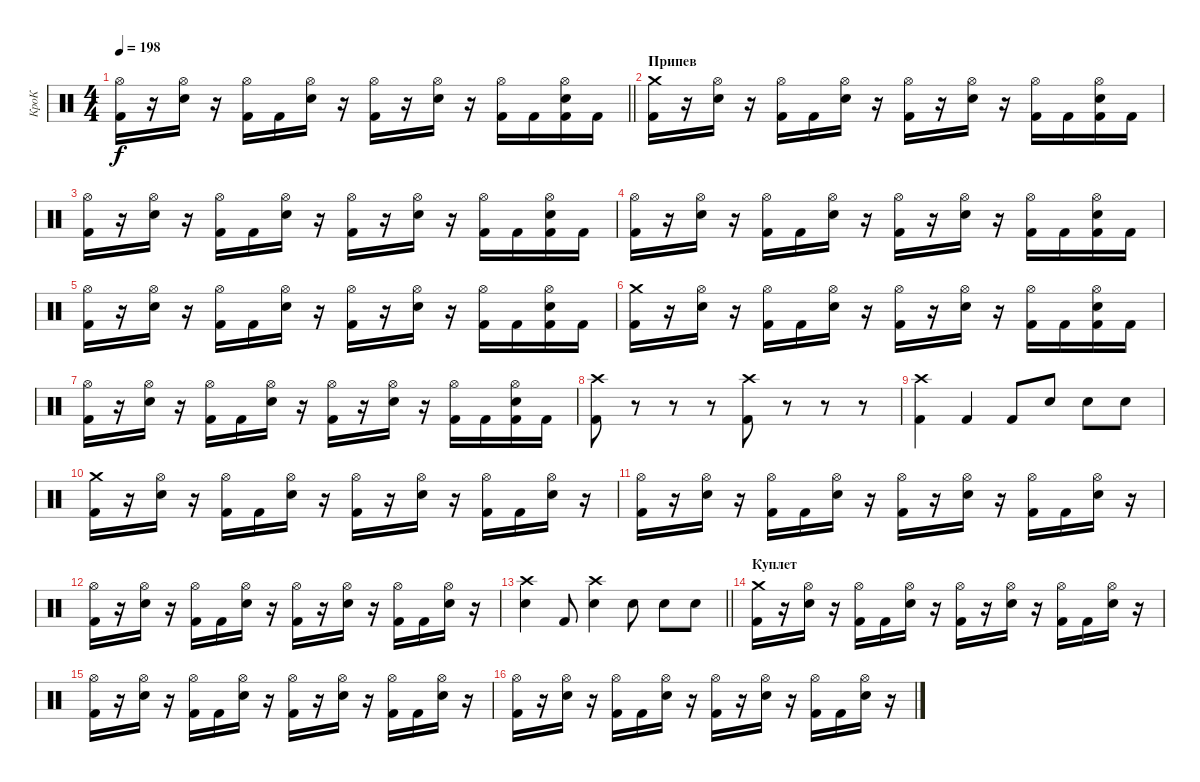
\track ("КроК" "КроК") {instrument percussion}
\staff {score}
\articulation defaults
\ts (4 4)
\tempo 198
\clef neutral
\barLineRight lightlight
\ks c
("Hi-Hat (open)" "Kick (hit) 2").16{dy f} r.16 ("Hi-Hat (open)" "Electric Snare (hit)").16 r.16 ("Hi-Hat (open)" "Kick (hit) 2").16 "Kick (hit) 2".16 ("Hi-Hat (open)" "Electric Snare (hit)").16 r.16 ("Hi-Hat (open)" "Kick (hit) 2").16 r.16 ("Hi-Hat (open)" "Electric Snare (hit)").16 r.16 ("Hi-Hat (open)" "Kick (hit) 2").16 "Kick (hit) 2".16 ("Hi-Hat (open)" "Electric Snare (hit)" "Kick (hit) 2").16 "Kick (hit) 2".16 |
\section ("" "Припев")
("Crash medium (hit)" "Kick (hit) 2").16 r.16 ("Hi-Hat (open)" "Electric Snare (hit)").16 r.16 ("Hi-Hat (open)" "Kick (hit) 2").16 "Kick (hit) 2".16 ("Hi-Hat (open)" "Electric Snare (hit)").16 r.16 ("Hi-Hat (open)" "Kick (hit) 2").16 r.16 ("Hi-Hat (open)" "Electric Snare (hit)").16 r.16 ("Hi-Hat (open)" "Kick (hit) 2").16 "Kick (hit) 2".16 ("Hi-Hat (open)" "Electric Snare (hit)" "Kick (hit) 2").16 "Kick (hit) 2".16 |
("Hi-Hat (open)" "Kick (hit) 2").16 r.16 ("Hi-Hat (open)" "Electric Snare (hit)").16 r.16 ("Hi-Hat (open)" "Kick (hit) 2").16 "Kick (hit) 2".16 ("Hi-Hat (open)" "Electric Snare (hit)").16 r.16 ("Hi-Hat (open)" "Kick (hit) 2").16 r.16 ("Hi-Hat (open)" "Electric Snare (hit)").16 r.16 ("Hi-Hat (open)" "Kick (hit) 2").16 "Kick (hit) 2".16 ("Hi-Hat (open)" "Electric Snare (hit)" "Kick (hit) 2").16 "Kick (hit) 2".16 |
("Hi-Hat (open)" "Kick (hit) 2").16 r.16 ("Hi-Hat (open)" "Electric Snare (hit)").16 r.16 ("Hi-Hat (open)" "Kick (hit) 2").16 "Kick (hit) 2".16 ("Hi-Hat (open)" "Electric Snare (hit)").16 r.16 ("Hi-Hat (open)" "Kick (hit) 2").16 r.16 ("Hi-Hat (open)" "Electric Snare (hit)").16 r.16 ("Hi-Hat (open)" "Kick (hit) 2").16 "Kick (hit) 2".16 ("Hi-Hat (open)" "Electric Snare (hit)" "Kick (hit) 2").16 "Kick (hit) 2".16 |
("Hi-Hat (open)" "Kick (hit) 2").16 r.16 ("Hi-Hat (open)" "Electric Snare (hit)").16 r.16 ("Hi-Hat (open)" "Kick (hit) 2").16 "Kick (hit) 2".16 ("Hi-Hat (open)" "Electric Snare (hit)").16 r.16 ("Hi-Hat (open)" "Kick (hit) 2").16 r.16 ("Hi-Hat (open)" "Electric Snare (hit)").16 r.16 ("Hi-Hat (open)" "Kick (hit) 2").16 "Kick (hit) 2".16 ("Hi-Hat (open)" "Electric Snare (hit)" "Kick (hit) 2").16 "Kick (hit) 2".16 |
("Crash medium (hit)" "Kick (hit) 2").16 r.16 ("Hi-Hat (open)" "Electric Snare (hit)").16 r.16 ("Hi-Hat (open)" "Kick (hit) 2").16 "Kick (hit) 2".16 ("Hi-Hat (open)" "Electric Snare (hit)").16 r.16 ("Hi-Hat (open)" "Kick (hit) 2").16 r.16 ("Hi-Hat (open)" "Electric Snare (hit)").16 r.16 ("Hi-Hat (open)" "Kick (hit) 2").16 "Kick (hit) 2".16 ("Hi-Hat (open)" "Electric Snare (hit)" "Kick (hit) 2").16 "Kick (hit) 2".16 |
("Hi-Hat (open)" "Kick (hit) 2").16 r.16 ("Hi-Hat (open)" "Electric Snare (hit)").16 r.16 ("Hi-Hat (open)" "Kick (hit) 2").16 "Kick (hit) 2".16 ("Hi-Hat (open)" "Electric Snare (hit)").16 r.16 ("Hi-Hat (open)" "Kick (hit) 2").16 r.16 ("Hi-Hat (open)" "Electric Snare (hit)").16 r.16 ("Hi-Hat (open)" "Kick (hit) 2").16 "Kick (hit) 2".16 ("Hi-Hat (open)" "Electric Snare (hit)" "Kick (hit) 2").16 "Kick (hit) 2".16 |
("Crash high (hit)" "Kick (hit) 2").8 r.8 r.8 r.8 ("Crash high (hit)" "Kick (hit) 2").8 r.8 r.8 r.8 |
("Kick (hit) 2" "Crash high (hit)").4 "Kick (hit) 2".4 "Kick (hit) 2".8 "Electric Snare (hit)".8 "Electric Snare (hit)".8 "Electric Snare (hit)".8 |
("Crash medium (hit)" "Kick (hit) 2").16 r.16 ("Hi-Hat (open)" "Electric Snare (hit)").16 r.16 ("Hi-Hat (open)" "Kick (hit) 2").16 "Kick (hit) 2".16 ("Hi-Hat (open)" "Electric Snare (hit)").16 r.16 ("Hi-Hat (open)" "Kick (hit) 2").16 r.16 ("Hi-Hat (open)" "Electric Snare (hit)").16 r.16 ("Hi-Hat (open)" "Kick (hit) 2").16 "Kick (hit) 2".16 ("Hi-Hat (open)" "Electric Snare (hit)").16 r.16 |
("Hi-Hat (open)" "Kick (hit) 2").16 r.16 ("Hi-Hat (open)" "Electric Snare (hit)").16 r.16 ("Hi-Hat (open)" "Kick (hit) 2").16 "Kick (hit) 2".16 ("Hi-Hat (open)" "Electric Snare (hit)").16 r.16 ("Hi-Hat (open)" "Kick (hit) 2").16 r.16 ("Hi-Hat (open)" "Electric Snare (hit)").16 r.16 ("Hi-Hat (open)" "Kick (hit) 2").16 "Kick (hit) 2".16 ("Hi-Hat (open)" "Electric Snare (hit)").16 r.16 |
("Hi-Hat (open)" "Kick (hit) 2").16 r.16 ("Hi-Hat (open)" "Electric Snare (hit)").16 r.16 ("Hi-Hat (open)" "Kick (hit) 2").16 "Kick (hit) 2".16 ("Hi-Hat (open)" "Electric Snare (hit)").16 r.16 ("Hi-Hat (open)" "Kick (hit) 2").16 r.16 ("Hi-Hat (open)" "Electric Snare (hit)").16 r.16 ("Hi-Hat (open)" "Kick (hit) 2").16 "Kick (hit) 2".16 ("Hi-Hat (open)" "Electric Snare (hit)").16 r.16 |
\barLineRight lightlight
("Electric Snare (hit)" "Crash high (hit)").4 "Kick (hit) 2".8 ("Electric Snare (hit)" "Crash high (hit)").4 "Electric Snare (hit)".8 "Electric Snare (hit)".8 "Electric Snare (hit)".8 |
\section ("" "Куплет")
("Crash medium (hit)" "Kick (hit) 2").16 r.16 ("Hi-Hat (open)" "Electric Snare (hit)").16 r.16 ("Hi-Hat (open)" "Kick (hit) 2").16 "Kick (hit) 2".16 ("Hi-Hat (open)" "Electric Snare (hit)").16 r.16 ("Hi-Hat (open)" "Kick (hit) 2").16 r.16 ("Hi-Hat (open)" "Electric Snare (hit)").16 r.16 ("Hi-Hat (open)" "Kick (hit) 2").16 "Kick (hit) 2".16 ("Hi-Hat (open)" "Electric Snare (hit)").16 r.16 |
("Hi-Hat (open)" "Kick (hit) 2").16 r.16 ("Hi-Hat (open)" "Electric Snare (hit)").16 r.16 ("Hi-Hat (open)" "Kick (hit) 2").16 "Kick (hit) 2".16 ("Hi-Hat (open)" "Electric Snare (hit)").16 r.16 ("Hi-Hat (open)" "Kick (hit) 2").16 r.16 ("Hi-Hat (open)" "Electric Snare (hit)").16 r.16 ("Hi-Hat (open)" "Kick (hit) 2").16 "Kick (hit) 2".16 ("Hi-Hat (open)" "Electric Snare (hit)").16 r.16 |
("Hi-Hat (open)" "Kick (hit) 2").16 r.16 ("Hi-Hat (open)" "Electric Snare (hit)").16 r.16 ("Hi-Hat (open)" "Kick (hit) 2").16 "Kick (hit) 2".16 ("Hi-Hat (open)" "Electric Snare (hit)").16 r.16 ("Hi-Hat (open)" "Kick (hit) 2").16 r.16 ("Hi-Hat (open)" "Electric Snare (hit)").16 r.16 ("Hi-Hat (open)" "Kick (hit) 2").16 "Kick (hit) 2".16 ("Hi-Hat (open)" "Electric Snare (hit)").16 r.16
